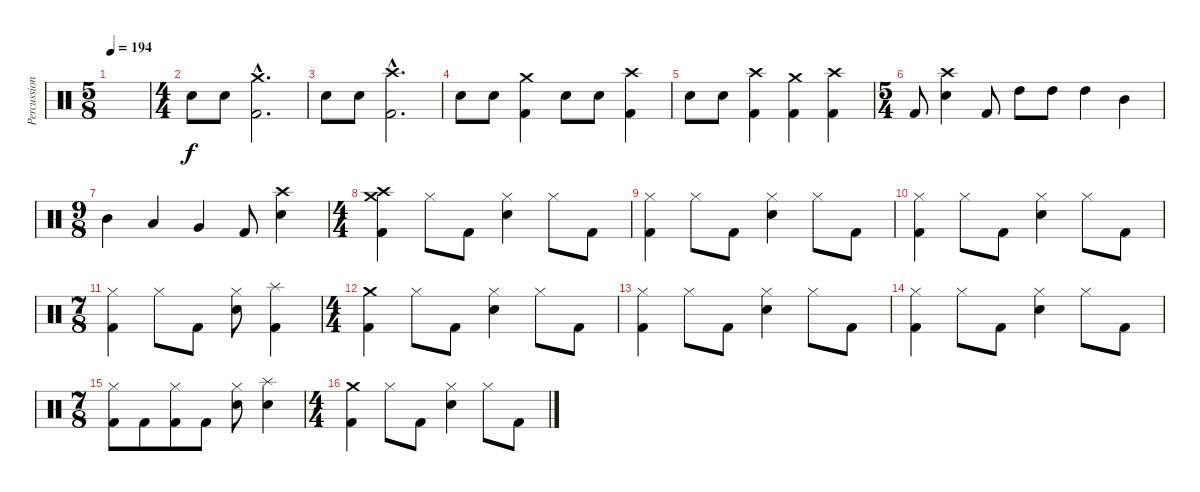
\track ("Percussions" "Percussion") {instrument percussion}
\staff {score}
\articulation defaults
\ts (5 8)
\tempo 194
\clef neutral
\ks c
|
\ts (4 4)
"Electric Snare (hit)".8 "Electric Snare (hit)".8 ("Crash medium (hit)"{hac} "Kick (hit) 2"{hac}).2{d} |
"Electric Snare (hit)".8 "Electric Snare (hit)".8 ("Crash high (hit)"{hac} "Kick (hit) 2"{hac}).2{d} |
"Electric Snare (hit)".8 "Electric Snare (hit)".8 ("Crash medium (hit)" "Kick (hit) 2").4 "Electric Snare (hit)".8 "Electric Snare (hit)".8 ("Crash high (hit)" "Kick (hit) 2").4 |
"Electric Snare (hit)".8 "Electric Snare (hit)".8 ("Crash high (hit)" "Kick (hit) 2").4 ("Crash medium (hit)" "Kick (hit) 2").4 ("Crash high (hit)" "Kick (hit) 2").4 |
\ts (5 4)
"Kick (hit) 2".8 ("Crash high (hit)" "Electric Snare (hit)").4 "Kick (hit) 2".8 "High Tom (hit)".8 "High Tom (hit)".8 "High Tom (hit)".4 "Mid Tom (hit)".4 |
\ts (9 8)
"Mid Tom (hit)".4 "Low Tom (hit)".4 "Very Low Tom (hit)".4 "Kick (hit) 2".8 ("Crash high (hit)" "Electric Snare (hit)").4 |
\ts (4 4)
("Crash high (hit)" "Crash medium (hit)" "Kick (hit) 2").4 "Hi-Hat (closed)".8 "Kick (hit) 2".8 ("Hi-Hat (closed)" "Electric Snare (hit)").4 "Hi-Hat (closed)".8 "Kick (hit) 2".8 |
("Hi-Hat (closed)" "Kick (hit) 2").4 "Hi-Hat (closed)".8 "Kick (hit) 2".8 ("Hi-Hat (closed)" "Electric Snare (hit)").4 "Hi-Hat (closed)".8 "Kick (hit) 2".8 |
("Hi-Hat (closed)" "Kick (hit) 2").4 "Hi-Hat (closed)".8 "Kick (hit) 2".8 ("Hi-Hat (closed)" "Electric Snare (hit)").4 "Hi-Hat (closed)".8 "Kick (hit) 2".8 |
\ts (7 8)
("Hi-Hat (closed)" "Kick (hit) 2").4 "Hi-Hat (closed)".8 "Kick (hit) 2".8 ("Hi-Hat (closed)" "Electric Snare (hit)").8 ("Splash (hit)" "Kick (hit) 2").4 |
\ts (4 4)
("Crash medium (hit)" "Kick (hit) 2").4 "Hi-Hat (closed)".8 "Kick (hit) 2".8 ("Hi-Hat (closed)" "Electric Snare (hit)").4 "Hi-Hat (closed)".8 "Kick (hit) 2".8 |
("Hi-Hat (closed)" "Kick (hit) 2").4 "Hi-Hat (closed)".8 "Kick (hit) 2".8 ("Hi-Hat (closed)" "Electric Snare (hit)").4 "Hi-Hat (closed)".8 "Kick (hit) 2".8 |
("Hi-Hat (closed)" "Kick (hit) 2").4 "Hi-Hat (closed)".8 "Kick (hit) 2".8 ("Hi-Hat (closed)" "Electric Snare (hit)").4 "Hi-Hat (closed)".8 "Kick (hit) 2".8 |
\ts (7 8)
("Hi-Hat (closed)" "Kick (hit) 2").8 "Kick (hit) 2".8 ("Hi-Hat (closed)" "Kick (hit) 2").8 "Kick (hit) 2".8 ("Hi-Hat (closed)" "Electric Snare (hit)").8 ("Splash (hit)" "Electric Snare (hit)").4 |
\ts (4 4)
("Crash medium (hit)" "Kick (hit) 2").4 "Hi-Hat (closed)".8 "Kick (hit) 2".8 ("Hi-Hat (closed)" "Electric Snare (hit)").4 "Hi-Hat (closed)".8 "Kick (hit) 2".8
